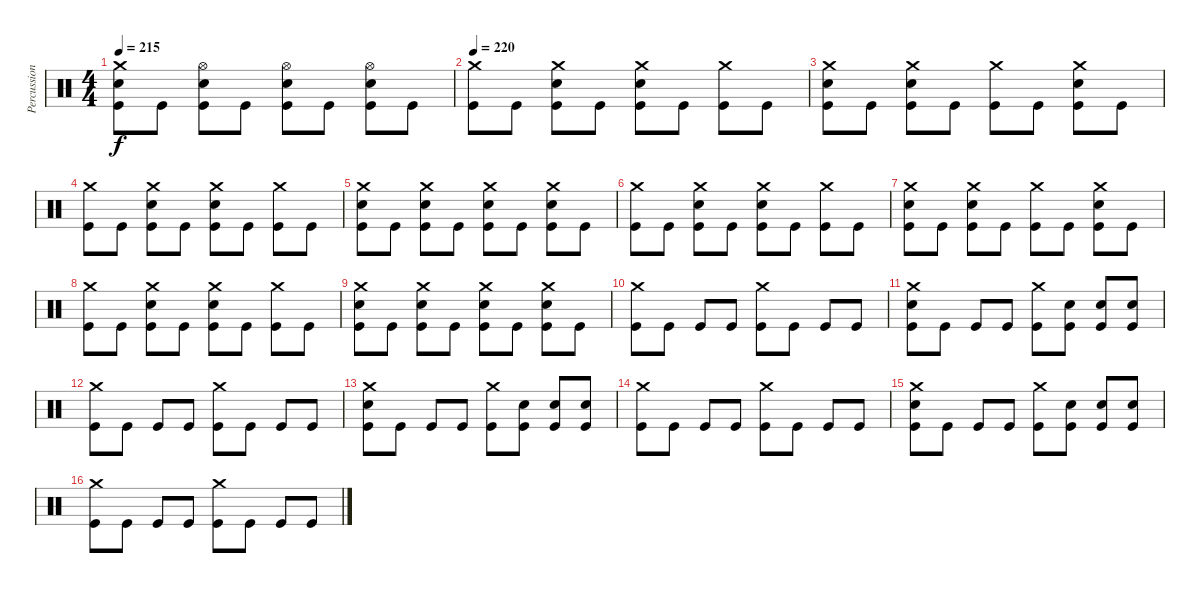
\track ("Percussion" "Percussion") {instrument percussion}
\staff {score}
\articulation defaults
\ts (4 4)
\tempo 215
\clef neutral
\ks c
("Crash medium (hit)" "Snare (hit) 2" "Kick (hit)").8{dy f} "Kick (hit)".8 ("Hi-Hat (open)" "Snare (hit) 2" "Kick (hit)").8 "Kick (hit)".8 ("Hi-Hat (open)" "Snare (hit) 2" "Kick (hit)").8 "Kick (hit)".8 ("Hi-Hat (open)" "Snare (hit) 2" "Kick (hit)").8 "Kick (hit)".8 |
\tempo 220
("Crash medium (hit)" "Kick (hit)").8 "Kick (hit)".8 ("Crash medium (hit)" "Snare (hit) 2" "Kick (hit)").8 "Kick (hit)".8 ("Crash medium (hit)" "Snare (hit) 2" "Kick (hit)").8 "Kick (hit)".8 ("Crash medium (hit)" "Kick (hit)").8 "Kick (hit)".8 |
("Crash medium (hit)" "Snare (hit) 2" "Kick (hit)").8 "Kick (hit)".8 ("Crash medium (hit)" "Snare (hit) 2" "Kick (hit)").8 "Kick (hit)".8 ("Crash medium (hit)" "Kick (hit)").8 "Kick (hit)".8 ("Crash medium (hit)" "Snare (hit) 2" "Kick (hit)").8 "Kick (hit)".8 |
("Crash medium (hit)" "Kick (hit)").8 "Kick (hit)".8 ("Crash medium (hit)" "Snare (hit) 2" "Kick (hit)").8 "Kick (hit)".8 ("Crash medium (hit)" "Snare (hit) 2" "Kick (hit)").8 "Kick (hit)".8 ("Crash medium (hit)" "Kick (hit)").8 "Kick (hit)".8 |
("Crash medium (hit)" "Snare (hit) 2" "Kick (hit)").8 "Kick (hit)".8 ("Crash medium (hit)" "Snare (hit) 2" "Kick (hit)").8 "Kick (hit)".8 ("Crash medium (hit)" "Snare (hit) 2" "Kick (hit)").8 "Kick (hit)".8 ("Crash medium (hit)" "Snare (hit) 2" "Kick (hit)").8 "Kick (hit)".8 |
("Crash medium (hit)" "Kick (hit)").8 "Kick (hit)".8 ("Crash medium (hit)" "Snare (hit) 2" "Kick (hit)").8 "Kick (hit)".8 ("Crash medium (hit)" "Snare (hit) 2" "Kick (hit)").8 "Kick (hit)".8 ("Crash medium (hit)" "Kick (hit)").8 "Kick (hit)".8 |
("Crash medium (hit)" "Snare (hit) 2" "Kick (hit)").8 "Kick (hit)".8 ("Crash medium (hit)" "Snare (hit) 2" "Kick (hit)").8 "Kick (hit)".8 ("Crash medium (hit)" "Kick (hit)").8 "Kick (hit)".8 ("Crash medium (hit)" "Snare (hit) 2" "Kick (hit)").8 "Kick (hit)".8 |
("Crash medium (hit)" "Kick (hit)").8 "Kick (hit)".8 ("Crash medium (hit)" "Snare (hit) 2" "Kick (hit)").8 "Kick (hit)".8 ("Crash medium (hit)" "Snare (hit) 2" "Kick (hit)").8 "Kick (hit)".8 ("Crash medium (hit)" "Kick (hit)").8 "Kick (hit)".8 |
("Crash medium (hit)" "Snare (hit) 2" "Kick (hit)").8 "Kick (hit)".8 ("Crash medium (hit)" "Snare (hit) 2" "Kick (hit)").8 "Kick (hit)".8 ("Crash medium (hit)" "Snare (hit) 2" "Kick (hit)").8 "Kick (hit)".8 ("Crash medium (hit)" "Snare (hit) 2" "Kick (hit)").8 "Kick (hit)".8 |
("Crash medium (hit)" "Kick (hit)").8 "Kick (hit)".8 "Kick (hit)".8 "Kick (hit)".8 ("Crash medium (hit)" "Kick (hit)").8 "Kick (hit)".8 "Kick (hit)".8 "Kick (hit)".8 |
("Crash medium (hit)" "Snare (hit) 2" "Kick (hit)").8 "Kick (hit)".8 "Kick (hit)".8 "Kick (hit)".8 ("Crash medium (hit)" "Kick (hit)").8 ("Snare (hit) 2" "Kick (hit)").8 ("Snare (hit) 2" "Kick (hit)").8 ("Snare (hit) 2" "Kick (hit)").8 |
("Crash medium (hit)" "Kick (hit)").8 "Kick (hit)".8 "Kick (hit)".8 "Kick (hit)".8 ("Crash medium (hit)" "Kick (hit)").8 "Kick (hit)".8 "Kick (hit)".8 "Kick (hit)".8 |
("Crash medium (hit)" "Snare (hit) 2" "Kick (hit)").8 "Kick (hit)".8 "Kick (hit)".8 "Kick (hit)".8 ("Crash medium (hit)" "Kick (hit)").8 ("Snare (hit) 2" "Kick (hit)").8 ("Snare (hit) 2" "Kick (hit)").8 ("Snare (hit) 2" "Kick (hit)").8 |
("Crash medium (hit)" "Kick (hit)").8 "Kick (hit)".8 "Kick (hit)".8 "Kick (hit)".8 ("Crash medium (hit)" "Kick (hit)").8 "Kick (hit)".8 "Kick (hit)".8 "Kick (hit)".8 |
("Crash medium (hit)" "Snare (hit) 2" "Kick (hit)").8 "Kick (hit)".8 "Kick (hit)".8 "Kick (hit)".8 ("Crash medium (hit)" "Kick (hit)").8 ("Snare (hit) 2" "Kick (hit)").8 ("Snare (hit) 2" "Kick (hit)").8 ("Snare (hit) 2" "Kick (hit)").8 |
("Crash medium (hit)" "Kick (hit)").8 "Kick (hit)".8 "Kick (hit)".8 "Kick (hit)".8 ("Crash medium (hit)" "Kick (hit)").8 "Kick (hit)".8 "Kick (hit)".8 "Kick (hit)".8
